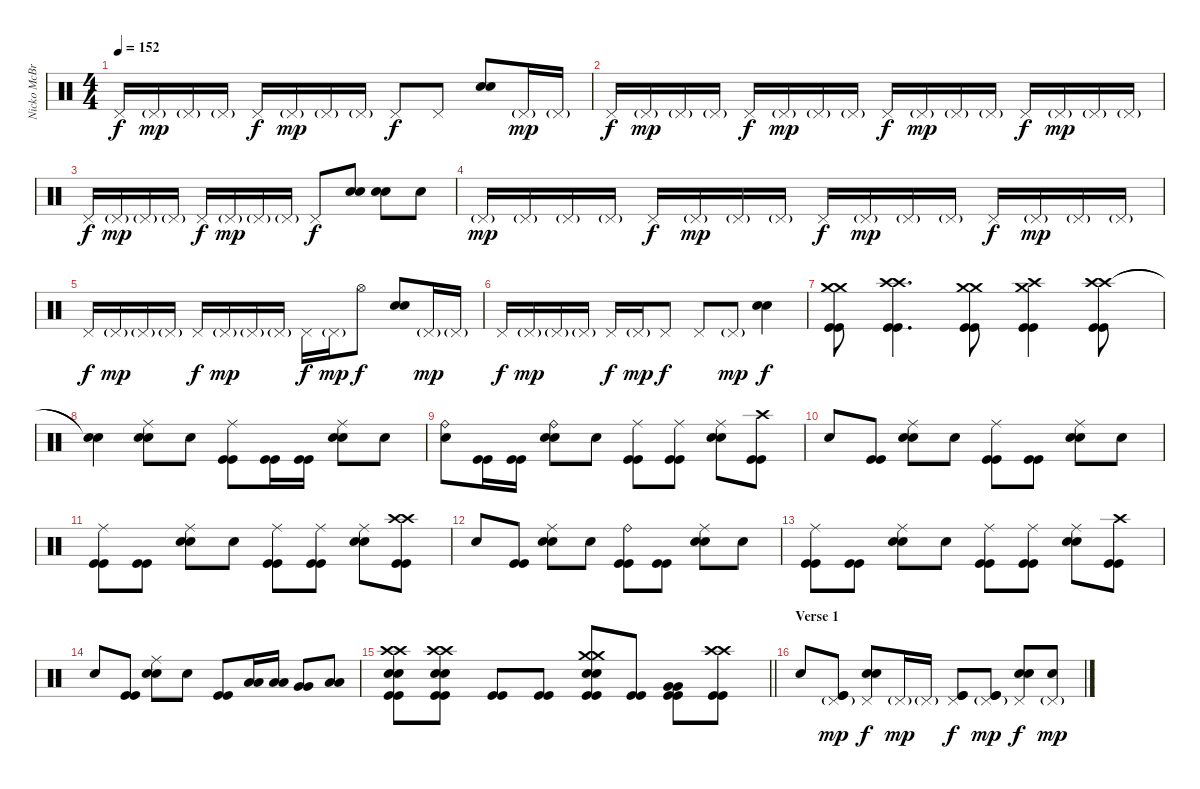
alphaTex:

\track ("Nicko McBrain" "Nicko McBr") {instrument percussion}
\staff {score}
\articulation defaults
\ts (4 4)
\tempo 152
\clef neutral
\ks c "Pedal Hi-Hat (hit)".16{dy f} "Pedal Hi-Hat (hit)"{g}.16{dy mp} "Pedal Hi-Hat (hit)"{g}.16 "Pedal Hi-Hat (hit)"{g}.16 "Pedal Hi-Hat (hit)".16{dy f} "Pedal Hi-Hat (hit)"{g}.16{dy mp} "Pedal Hi-Hat (hit)"{g}.16 "Pedal Hi-Hat (hit)"{g}.16 "Pedal Hi-Hat (hit)".8{dy f} "Pedal Hi-Hat (hit)".8
("Electric Snare (hit)" "Electric Snare (hit)").8 "Pedal Hi-Hat (hit)"{g}.16{dy mp} "Pedal Hi-Hat (hit)"{g}.16 |
"Pedal Hi-Hat (hit)".16{dy f} "Pedal Hi-Hat (hit)"{g}.16{dy mp} "Pedal Hi-Hat (hit)"{g}.16 "Pedal Hi-Hat (hit)"{g}.16 "Pedal Hi-Hat (hit)".16{dy f} "Pedal Hi-Hat (hit)"{g}.16{dy mp} "Pedal Hi-Hat (hit)"{g}.16 "Pedal Hi-Hat (hit)"{g}.16 "Pedal Hi-Hat (hit)".16{dy f} "Pedal Hi-Hat (hit)"{g}.16{dy mp} "Pedal Hi-Hat (hit)"{g}.16 "Pedal Hi-Hat (hit)"{g}.16 "Pedal Hi-Hat (hit)".16{dy f} "Pedal Hi-Hat (hit)"{g}.16{dy mp} "Pedal Hi-Hat (hit)"{g}.16 "Pedal Hi-Hat (hit)"{g}.16 |
"Pedal Hi-Hat (hit)".16{dy f} "Pedal Hi-Hat (hit)"{g}.16{dy mp} "Pedal Hi-Hat (hit)"{g}.16 "Pedal Hi-Hat (hit)"{g}.16 "Pedal Hi-Hat (hit)".16{dy f} "Pedal Hi-Hat (hit)"{g}.16{dy mp} "Pedal Hi-Hat (hit)"{g}.16 "Pedal Hi-Hat (hit)"{g}.16 "Pedal Hi-Hat (hit)".8{dy f} ("Electric Snare (hit)" "Electric Snare (hit)").8 ("Electric Snare (hit)" "Electric Snare (hit)").8 "Snare (hit)".8 |
"Pedal Hi-Hat (hit)"{g}.16{dy mp} "Pedal Hi-Hat (hit)"{g}.16 "Pedal Hi-Hat (hit)"{g}.16 "Pedal Hi-Hat (hit)"{g}.16 "Pedal Hi-Hat (hit)".16{dy f} "Pedal Hi-Hat (hit)"{g}.16{dy mp} "Pedal Hi-Hat (hit)"{g}.16 "Pedal Hi-Hat (hit)"{g}.16 "Pedal Hi-Hat (hit)".16{dy f} "Pedal Hi-Hat (hit)"{g}.16{dy mp} "Pedal Hi-Hat (hit)"{g}.16 "Pedal Hi-Hat (hit)"{g}.16 "Pedal Hi-Hat (hit)".16{dy f} "Pedal Hi-Hat (hit)"{g}.16{dy mp} "Pedal Hi-Hat (hit)"{g}.16 "Pedal Hi-Hat (hit)"{g}.16 |
"Pedal Hi-Hat (hit)".16{dy f} "Pedal Hi-Hat (hit)"{g}.16{dy mp} "Pedal Hi-Hat (hit)"{g}.16 "Pedal Hi-Hat (hit)"{g}.16 "Pedal Hi-Hat (hit)".16{dy f} "Pedal Hi-Hat (hit)"{g}.16{dy mp} "Pedal Hi-Hat (hit)"{g}.16 "Pedal Hi-Hat (hit)"{g}.16 "Pedal Hi-Hat (hit)".16{dy f} "Pedal Hi-Hat (hit)"{g}.16{dy mp} "Hi-Hat (open)".8{dy f} ("Electric Snare (hit)" "Electric Snare (hit)").8 "Pedal Hi-Hat (hit)"{g}.16{dy mp} "Pedal Hi-Hat (hit)"{g}.16 |
"Pedal Hi-Hat (hit)".16{dy f} "Pedal Hi-Hat (hit)"{g}.16{dy mp} "Pedal Hi-Hat (hit)"{g}.16 "Pedal Hi-Hat (hit)"{g}.16 "Pedal Hi-Hat (hit)".16{dy f} "Pedal Hi-Hat (hit)"{g}.16{dy mp} "Pedal Hi-Hat (hit)".8{dy f} "Pedal Hi-Hat (hit)".8 "Pedal Hi-Hat (hit)"{g}.8{dy mp} ("Electric Snare (hit)" "Electric Snare (hit)").4{dy f} |
("Crash medium (hit)" "Crash medium (hit)" "Kick (hit)" "Kick (hit)").8 ("Crash high (hit)" "Crash high (hit)" "Kick (hit)" "Kick (hit)").4{d} ("Crash medium (hit)" "Crash medium (hit)" "Kick (hit)" "Kick (hit)").8 ("Crash high (hit)" "Crash medium (hit)" "Kick (hit)" "Kick (hit)").4 ("Crash high (hit)" "Crash high (hit)" "Kick (hit)" "Kick (hit)").8 |
("Snare (hit)"{t} "Snare (hit)"{t}).4 ("Ride (middle)" "Electric Snare (hit)" "Electric Snare (hit)").8 "Snare (hit)".8 ("Ride (middle)" "Kick (hit)" "Kick (hit)").8 ("Kick (hit)" "Kick (hit)").16 ("Kick (hit)" "Kick (hit)").16 ("Ride (middle)" "Electric Snare (hit)" "Electric Snare (hit)").8 "Snare (hit)".8 |
("Ride (bell)" "Snare (hit)").8 ("Kick (hit)" "Kick (hit)").16 ("Kick (hit)" "Kick (hit)").16 ("Ride (bell)" "Electric Snare (hit)" "Electric Snare (hit)").8 "Snare (hit)".8 ("Ride (middle)" "Kick (hit)" "Kick (hit)").8 ("Ride (middle)" "Kick (hit)" "Kick (hit)").8 ("Ride (middle)" "Electric Snare (hit)" "Electric Snare (hit)").8 ("Crash high (hit)" "Kick (hit)" "Kick (hit)").8 |
"Snare (hit)".8 ("Kick (hit)" "Kick (hit)").8 ("Ride (middle)" "Electric Snare (hit)" "Electric Snare (hit)").8 "Snare (hit)".8 ("Ride (middle)" "Kick (hit)" "Kick (hit)").8 ("Kick (hit)" "Kick (hit)").8 ("Ride (middle)" "Electric Snare (hit)" "Electric Snare (hit)").8 "Snare (hit)".8 |
("Ride (middle)" "Kick (hit)" "Kick (hit)").8 ("Kick (hit)" "Kick (hit)").8 ("Ride (middle)" "Electric Snare (hit)" "Electric Snare (hit)").8 "Snare (hit)".8 ("Ride (middle)" "Kick (hit)" "Kick (hit)").8 ("Ride (middle)" "Kick (hit)" "Kick (hit)").8 ("Ride (middle)" "Electric Snare (hit)" "Electric Snare (hit)").8 ("Crash high (hit)" "Crash high (hit)" "Kick (hit)" "Kick (hit)").8 |
"Snare (hit)".8 ("Kick (hit)" "Kick (hit)").8 ("Ride (middle)" "Electric Snare (hit)" "Electric Snare (hit)").8 "Snare (hit)".8 ("Ride (bell)" "Kick (hit)" "Kick (hit)").8 ("Kick (hit)" "Kick (hit)").8 ("Ride (middle)" "Electric Snare (hit)" "Electric Snare (hit)").8 "Snare (hit)".8 |
("Ride (middle)" "Kick (hit)" "Kick (hit)").8 ("Kick (hit)" "Kick (hit)").8 ("Ride (middle)" "Electric Snare (hit)" "Electric Snare (hit)").8 "Snare (hit)".8 ("Ride (middle)" "Kick (hit)" "Kick (hit)").8 ("Ride (middle)" "Kick (hit)" "Kick (hit)").8 ("Ride (middle)" "Electric Snare (hit)" "Electric Snare (hit)").8 ("Crash high (hit)" "Kick (hit)" "Kick (hit)").8 |
"Snare (hit)".8 ("Kick (hit)" "Kick (hit)").8 ("Ride (middle)" "Electric Snare (hit)" "Electric Snare (hit)").8 "Snare (hit)".8 ("Kick (hit)" "Kick (hit)").8 ("Low Tom (hit)" "Low Tom (hit)").16 ("Low Tom (hit)" "Low Tom (hit)").16 ("Very Low Tom (hit)" "Very Low Tom (hit)").8 ("Low Floor Tom (hit)" "Low Floor Tom (hit)").8 |
\barLineRight lightlight
("Crash high (hit)" "Crash high (hit)" "Electric Snare (hit)" "Electric Snare (hit)" "Kick (hit)" "Kick (hit)").8 ("Crash high (hit)" "Crash high (hit)" "Electric Snare (hit)" "Electric Snare (hit)" "Kick (hit)" "Kick (hit)").8 ("Kick (hit)" "Kick (hit)").8 ("Kick (hit)" "Kick (hit)").8 ("Crash medium (hit)" "Crash medium (hit)" "Electric Snare (hit)" "Electric Snare (hit)" "Kick (hit)" "Kick (hit)").8 ("Kick (hit)" "Kick (hit)").8 ("Very Low Tom (hit)" "Very Low Tom (hit)" "Kick (hit)" "Kick (hit)").8 ("Crash high (hit)" "Crash high (hit)" "Kick (hit)" "Kick (hit)").8 |
\section ("" "Verse 1")
"Snare (hit)".8 ("Pedal Hi-Hat (hit)"{g} "Kick (hit)" "Kick (hit)").8{dy mp} ("Pedal Hi-Hat (hit)" "Electric Snare (hit)" "Electric Snare (hit)").8{dy f} "Pedal Hi-Hat (hit)"{g}.16{dy mp} "Pedal Hi-Hat (hit)"{g}.16 ("Pedal Hi-Hat (hit)" "Kick (hit)" "Kick (hit)").8{dy f} ("Pedal Hi-Hat (hit)"{g} "Kick (hit)" "Kick (hit)").8{dy mp} ("Pedal Hi-Hat (hit)" "Electric Snare (hit)" "Electric Snare (hit)").8{dy f} ("Pedal Hi-Hat (hit)"{g} "Snare (hit)").8{dy mp}
